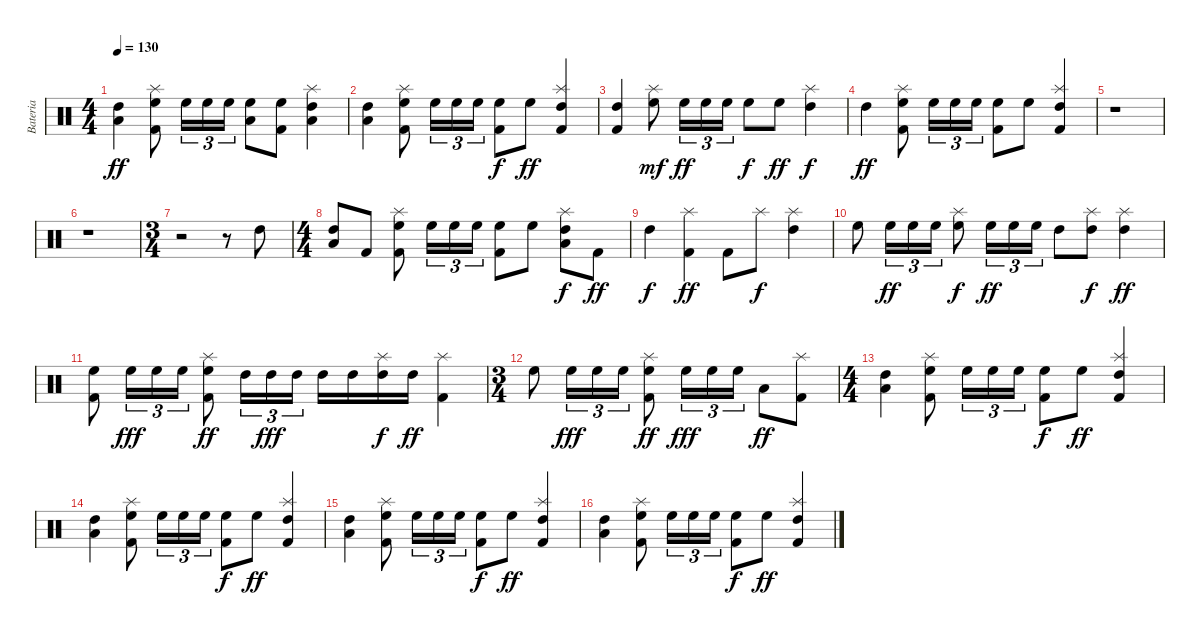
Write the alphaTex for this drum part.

\track ("Bateria" "Bateria") {instrument percussion}
\staff {score}
\articulation defaults
\ts (4 4)
\tempo 130
\clef neutral
\ks c
("High Tom (hit)" "Low Floor Tom (hit)").4{dy ff} ("High Floor Tom (hit)" "Splash (hit)" "Kick (hit) 2").8 "High Floor Tom (hit)".16{tu (3 2)} "High Floor Tom (hit)".16{tu (3 2)} "High Floor Tom (hit)".16{tu (3 2)} ("High Floor Tom (hit)" "Low Floor Tom (hit)").8 ("High Floor Tom (hit)" "Kick (hit) 2").8 ("High Tom (hit)" "Splash (hit)" "Low Floor Tom (hit)").4 |
("High Tom (hit)" "Low Floor Tom (hit)").4 ("High Floor Tom (hit)" "Splash (hit)" "Kick (hit) 2").8 "High Floor Tom (hit)".16{tu (3 2)} "High Floor Tom (hit)".16{tu (3 2)} "High Floor Tom (hit)".16{tu (3 2)} ("High Floor Tom (hit)" "Kick (hit) 2").8{dy f} "High Floor Tom (hit)".8{dy ff} ("High Tom (hit)" "Splash (hit)" "Kick (hit) 2").4 |
("High Tom (hit)" "Kick (hit) 2").4 ("High Floor Tom (hit)" "Splash (hit)").8{dy mf} "High Floor Tom (hit)".16{tu (3 2) dy ff} "High Floor Tom (hit)".16{tu (3 2)} "High Floor Tom (hit)".16{tu (3 2)} "High Floor Tom (hit)".8{dy f} "High Floor Tom (hit)".8{dy ff} ("High Tom (hit)" "Splash (hit)").4{dy f} |
"High Tom (hit)".4{dy ff} ("High Floor Tom (hit)" "Splash (hit)" "Kick (hit) 2").8 "High Floor Tom (hit)".16{tu (3 2)} "High Floor Tom (hit)".16{tu (3 2)} "High Floor Tom (hit)".16{tu (3 2)} ("High Floor Tom (hit)" "Kick (hit) 2").8 "High Floor Tom (hit)".8 ("High Tom (hit)" "Splash (hit)" "Kick (hit) 2").4 |
r.1 |
r.1 |
\ts (3 4)
r.2 r.8 "High Tom (hit)".8 |
\ts (4 4)
("High Tom (hit)" "Low Floor Tom (hit)").8 "Kick (hit) 2".8 ("High Floor Tom (hit)" "Splash (hit)" "Kick (hit) 2").8 "High Floor Tom (hit)".16{tu (3 2)} "High Floor Tom (hit)".16{tu (3 2)} "High Floor Tom (hit)".16{tu (3 2)} ("High Floor Tom (hit)" "Kick (hit) 2").8 "High Floor Tom (hit)".8 ("High Tom (hit)" "Splash (hit)" "Low Floor Tom (hit)").8{dy f} "Kick (hit) 2".8{dy ff} |
"High Tom (hit)".4{dy f} ("Kick (hit) 2" "Splash (hit)").4{dy ff} "Kick (hit) 2".8 "Splash (hit)".8{dy f} ("High Tom (hit)" "Splash (hit)").4 |
"High Floor Tom (hit)".8 "High Floor Tom (hit)".16{tu (3 2) dy ff} "High Floor Tom (hit)".16{tu (3 2)} "High Floor Tom (hit)".16{tu (3 2)} ("Splash (hit)" "High Floor Tom (hit)").8{dy f} "High Floor Tom (hit)".16{tu (3 2) dy ff} "High Floor Tom (hit)".16{tu (3 2)} "High Floor Tom (hit)".16{tu (3 2)} "High Tom (hit)".8 ("High Tom (hit)" "Splash (hit)").8{dy f} ("High Tom (hit)" "Splash (hit)").4{dy ff} |
("Kick (hit) 2" "High Floor Tom (hit)").8 "High Floor Tom (hit)".16{tu (3 2) dy fff} "High Floor Tom (hit)".16{tu (3 2)} "High Floor Tom (hit)".16{tu (3 2)} ("Kick (hit) 2" "High Floor Tom (hit)" "Splash (hit)").8{dy ff} "High Tom (hit)".16{tu (3 2)} "High Tom (hit)".16{tu (3 2) dy fff} "High Tom (hit)".16{tu (3 2)} "High Tom (hit)".16 "High Tom (hit)".16 ("High Tom (hit)" "Splash (hit)").16{dy f} "High Tom (hit)".16{dy ff} ("Kick (hit) 2" "Splash (hit)").4 |
\ts (3 4)
"High Floor Tom (hit)".8 "High Floor Tom (hit)".16{tu (3 2) dy fff} "High Floor Tom (hit)".16{tu (3 2)} "High Floor Tom (hit)".16{tu (3 2)} ("Kick (hit) 2" "High Floor Tom (hit)" "Splash (hit)").8{dy ff} "High Floor Tom (hit)".16{tu (3 2) dy fff} "High Floor Tom (hit)".16{tu (3 2)} "High Floor Tom (hit)".16{tu (3 2)} "Low Floor Tom (hit)".8{dy ff} ("Kick (hit) 2" "Splash (hit)").8 |
\ts (4 4)
("High Tom (hit)" "Low Floor Tom (hit)").4 ("High Floor Tom (hit)" "Splash (hit)" "Kick (hit) 2").8 "High Floor Tom (hit)".16{tu (3 2)} "High Floor Tom (hit)".16{tu (3 2)} "High Floor Tom (hit)".16{tu (3 2)} ("High Floor Tom (hit)" "Kick (hit) 2").8{dy f} "High Floor Tom (hit)".8{dy ff} ("High Tom (hit)" "Splash (hit)" "Kick (hit) 2").4 |
("High Tom (hit)" "Low Floor Tom (hit)").4 ("High Floor Tom (hit)" "Splash (hit)" "Kick (hit) 2").8 "High Floor Tom (hit)".16{tu (3 2)} "High Floor Tom (hit)".16{tu (3 2)} "High Floor Tom (hit)".16{tu (3 2)} ("High Floor Tom (hit)" "Kick (hit) 2").8{dy f} "High Floor Tom (hit)".8{dy ff} ("High Tom (hit)" "Splash (hit)" "Kick (hit) 2").4 |
("High Tom (hit)" "Low Floor Tom (hit)").4 ("High Floor Tom (hit)" "Splash (hit)" "Kick (hit) 2").8 "High Floor Tom (hit)".16{tu (3 2)} "High Floor Tom (hit)".16{tu (3 2)} "High Floor Tom (hit)".16{tu (3 2)} ("High Floor Tom (hit)" "Kick (hit) 2").8{dy f} "High Floor Tom (hit)".8{dy ff} ("High Tom (hit)" "Splash (hit)" "Kick (hit) 2").4 |
("High Tom (hit)" "Low Floor Tom (hit)").4 ("High Floor Tom (hit)" "Splash (hit)" "Kick (hit) 2").8 "High Floor Tom (hit)".16{tu (3 2)} "High Floor Tom (hit)".16{tu (3 2)} "High Floor Tom (hit)".16{tu (3 2)} ("High Floor Tom (hit)" "Kick (hit) 2").8{dy f} "High Floor Tom (hit)".8{dy ff} ("High Tom (hit)" "Splash (hit)" "Kick (hit) 2").4
